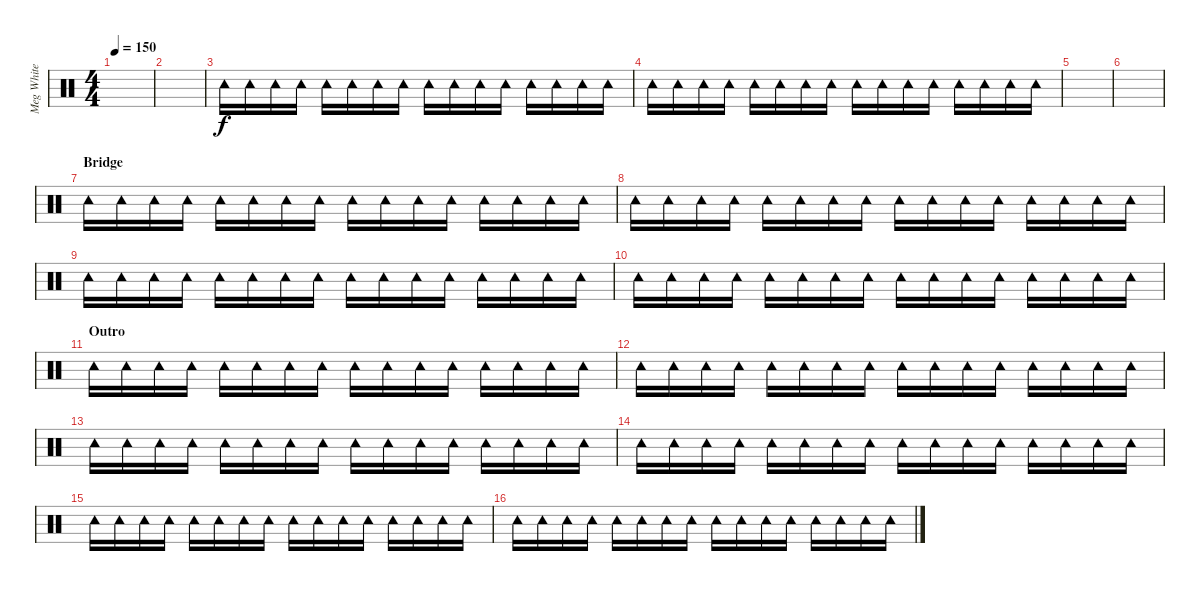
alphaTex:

\track ("Meg White - Tambourine" "Meg White ") {instrument percussion}
\staff {score}
\articulation defaults
\ts (4 4)
\tempo 150
\clef neutral
\ks c
|
|
"Tambourine (hit)".16 "Tambourine (hit)".16 "Tambourine (hit)".16 "Tambourine (hit)".16 "Tambourine (hit)".16 "Tambourine (hit)".16 "Tambourine (hit)".16 "Tambourine (hit)".16 "Tambourine (hit)".16 "Tambourine (hit)".16 "Tambourine (hit)".16 "Tambourine (hit)".16 "Tambourine (hit)".16 "Tambourine (hit)".16 "Tambourine (hit)".16 "Tambourine (hit)".16 |
"Tambourine (hit)".16 "Tambourine (hit)".16 "Tambourine (hit)".16 "Tambourine (hit)".16 "Tambourine (hit)".16 "Tambourine (hit)".16 "Tambourine (hit)".16 "Tambourine (hit)".16 "Tambourine (hit)".16 "Tambourine (hit)".16 "Tambourine (hit)".16 "Tambourine (hit)".16 "Tambourine (hit)".16 "Tambourine (hit)".16 "Tambourine (hit)".16 "Tambourine (hit)".16 |
|
|
\section ("" "Bridge")
"Tambourine (hit)".16 "Tambourine (hit)".16 "Tambourine (hit)".16 "Tambourine (hit)".16 "Tambourine (hit)".16 "Tambourine (hit)".16 "Tambourine (hit)".16 "Tambourine (hit)".16 "Tambourine (hit)".16 "Tambourine (hit)".16 "Tambourine (hit)".16 "Tambourine (hit)".16 "Tambourine (hit)".16 "Tambourine (hit)".16 "Tambourine (hit)".16 "Tambourine (hit)".16 |
"Tambourine (hit)".16 "Tambourine (hit)".16 "Tambourine (hit)".16 "Tambourine (hit)".16 "Tambourine (hit)".16 "Tambourine (hit)".16 "Tambourine (hit)".16 "Tambourine (hit)".16 "Tambourine (hit)".16 "Tambourine (hit)".16 "Tambourine (hit)".16 "Tambourine (hit)".16 "Tambourine (hit)".16 "Tambourine (hit)".16 "Tambourine (hit)".16 "Tambourine (hit)".16 |
"Tambourine (hit)".16 "Tambourine (hit)".16 "Tambourine (hit)".16 "Tambourine (hit)".16 "Tambourine (hit)".16 "Tambourine (hit)".16 "Tambourine (hit)".16 "Tambourine (hit)".16 "Tambourine (hit)".16 "Tambourine (hit)".16 "Tambourine (hit)".16 "Tambourine (hit)".16 "Tambourine (hit)".16 "Tambourine (hit)".16 "Tambourine (hit)".16 "Tambourine (hit)".16 |
"Tambourine (hit)".16 "Tambourine (hit)".16 "Tambourine (hit)".16 "Tambourine (hit)".16 "Tambourine (hit)".16 "Tambourine (hit)".16 "Tambourine (hit)".16 "Tambourine (hit)".16 "Tambourine (hit)".16 "Tambourine (hit)".16 "Tambourine (hit)".16 "Tambourine (hit)".16 "Tambourine (hit)".16 "Tambourine (hit)".16 "Tambourine (hit)".16 "Tambourine (hit)".16 |
\section ("" "Outro")
"Tambourine (hit)".16 "Tambourine (hit)".16 "Tambourine (hit)".16 "Tambourine (hit)".16 "Tambourine (hit)".16 "Tambourine (hit)".16 "Tambourine (hit)".16 "Tambourine (hit)".16 "Tambourine (hit)".16 "Tambourine (hit)".16 "Tambourine (hit)".16 "Tambourine (hit)".16 "Tambourine (hit)".16 "Tambourine (hit)".16 "Tambourine (hit)".16 "Tambourine (hit)".16 |
"Tambourine (hit)".16 "Tambourine (hit)".16 "Tambourine (hit)".16 "Tambourine (hit)".16 "Tambourine (hit)".16 "Tambourine (hit)".16 "Tambourine (hit)".16 "Tambourine (hit)".16 "Tambourine (hit)".16 "Tambourine (hit)".16 "Tambourine (hit)".16 "Tambourine (hit)".16 "Tambourine (hit)".16 "Tambourine (hit)".16 "Tambourine (hit)".16 "Tambourine (hit)".16 |
"Tambourine (hit)".16 "Tambourine (hit)".16 "Tambourine (hit)".16 "Tambourine (hit)".16 "Tambourine (hit)".16 "Tambourine (hit)".16 "Tambourine (hit)".16 "Tambourine (hit)".16 "Tambourine (hit)".16 "Tambourine (hit)".16 "Tambourine (hit)".16 "Tambourine (hit)".16 "Tambourine (hit)".16 "Tambourine (hit)".16 "Tambourine (hit)".16 "Tambourine (hit)".16 |
"Tambourine (hit)".16 "Tambourine (hit)".16 "Tambourine (hit)".16 "Tambourine (hit)".16 "Tambourine (hit)".16 "Tambourine (hit)".16 "Tambourine (hit)".16 "Tambourine (hit)".16 "Tambourine (hit)".16 "Tambourine (hit)".16 "Tambourine (hit)".16 "Tambourine (hit)".16 "Tambourine (hit)".16 "Tambourine (hit)".16 "Tambourine (hit)".16 "Tambourine (hit)".16 |
"Tambourine (hit)".16 "Tambourine (hit)".16 "Tambourine (hit)".16 "Tambourine (hit)".16 "Tambourine (hit)".16 "Tambourine (hit)".16 "Tambourine (hit)".16 "Tambourine (hit)".16 "Tambourine (hit)".16 "Tambourine (hit)".16 "Tambourine (hit)".16 "Tambourine (hit)".16 "Tambourine (hit)".16 "Tambourine (hit)".16 "Tambourine (hit)".16 "Tambourine (hit)".16 |
"Tambourine (hit)".16 "Tambourine (hit)".16 "Tambourine (hit)".16 "Tambourine (hit)".16 "Tambourine (hit)".16 "Tambourine (hit)".16 "Tambourine (hit)".16 "Tambourine (hit)".16 "Tambourine (hit)".16 "Tambourine (hit)".16 "Tambourine (hit)".16 "Tambourine (hit)".16 "Tambourine (hit)".16 "Tambourine (hit)".16 "Tambourine (hit)".16 "Tambourine (hit)".16
